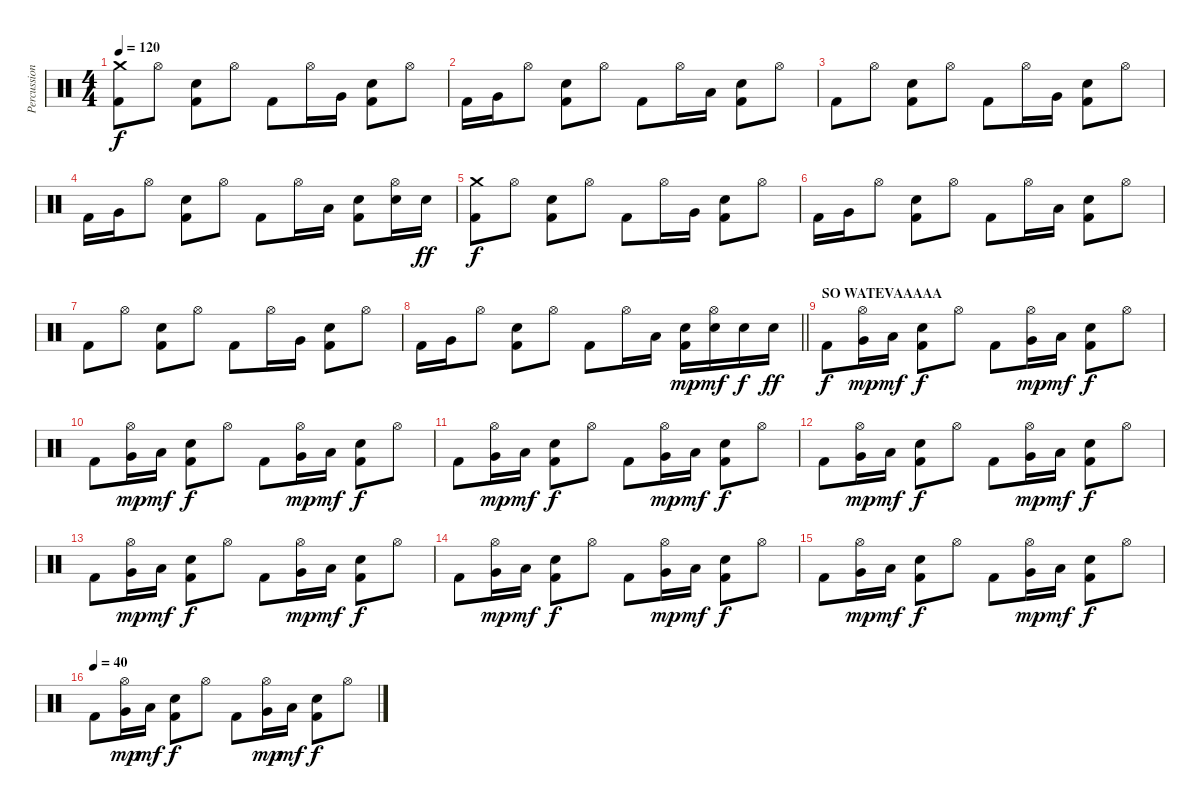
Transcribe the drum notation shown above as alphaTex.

\track ("Percussion" "Percussion") {instrument percussion}
\staff {score}
\articulation defaults
\ts (4 4)
\tempo 120
\clef neutral
\ks c
("Crash medium (hit)" "Kick (hit) 2").8{dy f} "Hi-Hat (open)".8 ("Electric Snare (hit)" "Kick (hit) 2").8 "Hi-Hat (open)".8 "Kick (hit) 2".8 "Hi-Hat (open)".16 "Very Low Tom (hit)".16 ("Electric Snare (hit)" "Kick (hit) 2").8 "Hi-Hat (open)".8 |
"Kick (hit) 2".16 "Very Low Tom (hit)".16 "Hi-Hat (open)".8 ("Electric Snare (hit)" "Kick (hit) 2").8 "Hi-Hat (open)".8 "Kick (hit) 2".8 "Hi-Hat (open)".16 "Low Tom (hit)".16 ("Electric Snare (hit)" "Kick (hit) 2").8 "Hi-Hat (open)".8 |
"Kick (hit) 2".8 "Hi-Hat (open)".8 ("Electric Snare (hit)" "Kick (hit) 2").8 "Hi-Hat (open)".8 "Kick (hit) 2".8 "Hi-Hat (open)".16 "Very Low Tom (hit)".16 ("Electric Snare (hit)" "Kick (hit) 2").8 "Hi-Hat (open)".8 |
"Kick (hit) 2".16 "Very Low Tom (hit)".16 "Hi-Hat (open)".8 ("Electric Snare (hit)" "Kick (hit) 2").8 "Hi-Hat (open)".8 "Kick (hit) 2".8 "Hi-Hat (open)".16 "Low Tom (hit)".16 ("Electric Snare (hit)" "Kick (hit) 2").8 ("Hi-Hat (open)" "Electric Snare (hit)").16 "Electric Snare (hit)".16{dy ff} |
("Crash medium (hit)" "Kick (hit) 2").8{dy f} "Hi-Hat (open)".8 ("Electric Snare (hit)" "Kick (hit) 2").8 "Hi-Hat (open)".8 "Kick (hit) 2".8 "Hi-Hat (open)".16 "Very Low Tom (hit)".16 ("Electric Snare (hit)" "Kick (hit) 2").8 "Hi-Hat (open)".8 |
"Kick (hit) 2".16 "Very Low Tom (hit)".16 "Hi-Hat (open)".8 ("Electric Snare (hit)" "Kick (hit) 2").8 "Hi-Hat (open)".8 "Kick (hit) 2".8 "Hi-Hat (open)".16 "Low Tom (hit)".16 ("Electric Snare (hit)" "Kick (hit) 2").8 "Hi-Hat (open)".8 |
"Kick (hit) 2".8 "Hi-Hat (open)".8 ("Electric Snare (hit)" "Kick (hit) 2").8 "Hi-Hat (open)".8 "Kick (hit) 2".8 "Hi-Hat (open)".16 "Very Low Tom (hit)".16 ("Electric Snare (hit)" "Kick (hit) 2").8 "Hi-Hat (open)".8 |
\barLineRight lightlight "Kick (hit) 2".16 "Very Low Tom (hit)".16 "Hi-Hat (open)".8
("Electric Snare (hit)" "Kick (hit) 2").8 "Hi-Hat (open)".8 "Kick (hit) 2".8 "Hi-Hat (open)".16 "Low Tom (hit)".16 ("Electric Snare (hit)" "Kick (hit) 2").16{dy mp} ("Hi-Hat (open)" "Electric Snare (hit)").16{dy mf} "Electric Snare (hit)".16{dy f} "Electric Snare (hit)".16{dy ff} |
\section ("" "SO WATEVAAAAA")
"Kick (hit) 2".8{dy f} ("Hi-Hat (open)" "Very Low Tom (hit)").16{dy mp} "Low Tom (hit)".16{dy mf} ("Electric Snare (hit)" "Kick (hit) 2").8{dy f} "Hi-Hat (open)".8 "Kick (hit) 2".8 ("Hi-Hat (open)" "Very Low Tom (hit)").16{dy mp} "Low Tom (hit)".16{dy mf} ("Electric Snare (hit)" "Kick (hit) 2").8{dy f} "Hi-Hat (open)".8 |
"Kick (hit) 2".8 ("Hi-Hat (open)" "Very Low Tom (hit)").16{dy mp} "Low Tom (hit)".16{dy mf} ("Electric Snare (hit)" "Kick (hit) 2").8{dy f} "Hi-Hat (open)".8 "Kick (hit) 2".8 ("Hi-Hat (open)" "Very Low Tom (hit)").16{dy mp} "Low Tom (hit)".16{dy mf} ("Electric Snare (hit)" "Kick (hit) 2").8{dy f} "Hi-Hat (open)".8 |
"Kick (hit) 2".8 ("Hi-Hat (open)" "Very Low Tom (hit)").16{dy mp} "Low Tom (hit)".16{dy mf} ("Electric Snare (hit)" "Kick (hit) 2").8{dy f} "Hi-Hat (open)".8 "Kick (hit) 2".8 ("Hi-Hat (open)" "Very Low Tom (hit)").16{dy mp} "Low Tom (hit)".16{dy mf} ("Electric Snare (hit)" "Kick (hit) 2").8{dy f} "Hi-Hat (open)".8 |
"Kick (hit) 2".8 ("Hi-Hat (open)" "Very Low Tom (hit)").16{dy mp} "Low Tom (hit)".16{dy mf} ("Electric Snare (hit)" "Kick (hit) 2").8{dy f} "Hi-Hat (open)".8 "Kick (hit) 2".8 ("Hi-Hat (open)" "Very Low Tom (hit)").16{dy mp} "Low Tom (hit)".16{dy mf} ("Electric Snare (hit)" "Kick (hit) 2").8{dy f} "Hi-Hat (open)".8 |
"Kick (hit) 2".8 ("Hi-Hat (open)" "Very Low Tom (hit)").16{dy mp} "Low Tom (hit)".16{dy mf} ("Electric Snare (hit)" "Kick (hit) 2").8{dy f} "Hi-Hat (open)".8 "Kick (hit) 2".8 ("Hi-Hat (open)" "Very Low Tom (hit)").16{dy mp} "Low Tom (hit)".16{dy mf} ("Electric Snare (hit)" "Kick (hit) 2").8{dy f} "Hi-Hat (open)".8 |
"Kick (hit) 2".8 ("Hi-Hat (open)" "Very Low Tom (hit)").16{dy mp} "Low Tom (hit)".16{dy mf} ("Electric Snare (hit)" "Kick (hit) 2").8{dy f} "Hi-Hat (open)".8 "Kick (hit) 2".8 ("Hi-Hat (open)" "Very Low Tom (hit)").16{dy mp} "Low Tom (hit)".16{dy mf} ("Electric Snare (hit)" "Kick (hit) 2").8{dy f} "Hi-Hat (open)".8 |
"Kick (hit) 2".8 ("Hi-Hat (open)" "Very Low Tom (hit)").16{dy mp} "Low Tom (hit)".16{dy mf} ("Electric Snare (hit)" "Kick (hit) 2").8{dy f} "Hi-Hat (open)".8 "Kick (hit) 2".8 ("Hi-Hat (open)" "Very Low Tom (hit)").16{dy mp} "Low Tom (hit)".16{dy mf} ("Electric Snare (hit)" "Kick (hit) 2").8{dy f} "Hi-Hat (open)".8 |
\tempo (40)
"Kick (hit) 2".8 ("Hi-Hat (open)" "Very Low Tom (hit)").16{dy mp} "Low Tom (hit)".16{dy mf} ("Electric Snare (hit)" "Kick (hit) 2").8{dy f} "Hi-Hat (open)".8 "Kick (hit) 2".8 ("Hi-Hat (open)" "Very Low Tom (hit)").16{dy mp} "Low Tom (hit)".16{dy mf} ("Electric Snare (hit)" "Kick (hit) 2").8{dy f} "Hi-Hat (open)".8
